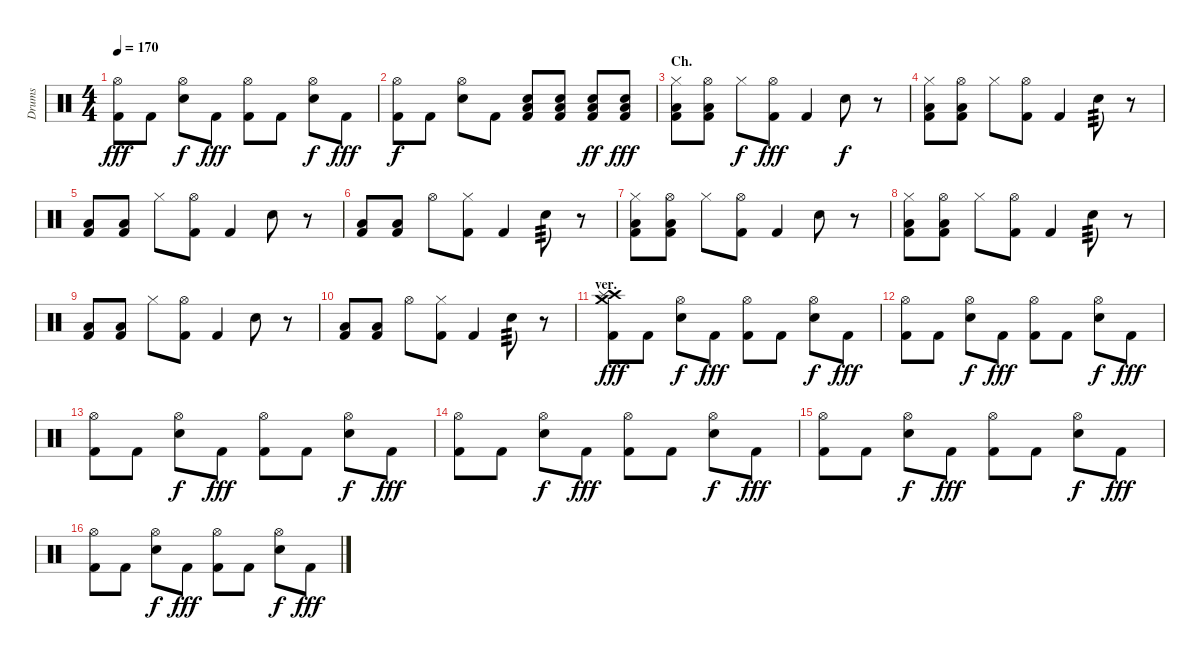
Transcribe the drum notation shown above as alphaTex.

\track ("Drums" "Drums") {instrument percussion}
\staff {score}
\articulation defaults
\ts (4 4)
\tempo 170
\clef neutral
\ks c
("Hi-Hat (open)" "Kick (hit) 2").8{dy fff} "Kick (hit) 2".8 ("Hi-Hat (open)" "Snare (hit) 2").8{dy f} "Kick (hit) 2".8{dy fff} ("Hi-Hat (open)" "Kick (hit) 2").8 "Kick (hit) 2".8 ("Hi-Hat (open)" "Snare (hit) 2").8{dy f} "Kick (hit) 2".8{dy fff} |
("Hi-Hat (open)" "Kick (hit) 2").8{dy f} "Kick (hit) 2".8 ("Hi-Hat (open)" "Electric Snare (hit)").8 "Kick (hit) 2".8 ("Electric Snare (hit)" "Low Floor Tom (hit)" "Kick (hit) 2").8 ("Electric Snare (hit)" "Low Floor Tom (hit)" "Kick (hit) 2").8 ("Electric Snare (hit)" "Low Floor Tom (hit)" "Kick (hit) 2").8{dy ff} ("Electric Snare (hit)" "Low Floor Tom (hit)" "Kick (hit) 2").8{dy fff} |
\section ("" "Ch.")
("Hi-Hat (closed)" "Low Tom (hit)" "Kick (hit) 2").8 ("Hi-Hat (open)" "Low Tom (hit)" "Kick (hit) 2").8 "Hi-Hat (closed)".8{dy f} ("Hi-Hat (open)" "Kick (hit) 2").8{dy fff} "Kick (hit) 2".4 "Electric Snare (hit)".8{dy f} r.8 |
("Hi-Hat (closed)" "Low Tom (hit)" "Kick (hit) 2").8 ("Hi-Hat (open)" "Low Tom (hit)" "Kick (hit) 2").8 "Hi-Hat (closed)".8 ("Hi-Hat (open)" "Kick (hit) 2").8 "Kick (hit) 2".4 "Electric Snare (hit)".8{tp 3} r.8 |
("Low Tom (hit)" "Kick (hit) 2").8 ("Low Tom (hit)" "Kick (hit) 2").8 "Hi-Hat (closed)".8 ("Hi-Hat (open)" "Kick (hit) 2").8 "Kick (hit) 2".4 "Electric Snare (hit)".8 r.8 |
("Low Tom (hit)" "Kick (hit) 2").8 ("Low Tom (hit)" "Kick (hit) 2").8 "Hi-Hat (open)".8 ("Hi-Hat (closed)" "Kick (hit) 2").8 "Kick (hit) 2".4 "Electric Snare (hit)".8{tp 3} r.8 |
("Hi-Hat (closed)" "Low Tom (hit)" "Kick (hit) 2").8 ("Hi-Hat (open)" "Low Tom (hit)" "Kick (hit) 2").8 "Hi-Hat (closed)".8 ("Hi-Hat (open)" "Kick (hit) 2").8 "Kick (hit) 2".4 "Electric Snare (hit)".8 r.8 |
("Hi-Hat (closed)" "Low Tom (hit)" "Kick (hit) 2").8 ("Hi-Hat (open)" "Low Tom (hit)" "Kick (hit) 2").8 "Hi-Hat (closed)".8 ("Hi-Hat (open)" "Kick (hit) 2").8 "Kick (hit) 2".4 "Electric Snare (hit)".8{tp 3} r.8 |
("Low Tom (hit)" "Kick (hit) 2").8 ("Low Tom (hit)" "Kick (hit) 2").8 "Hi-Hat (closed)".8 ("Hi-Hat (open)" "Kick (hit) 2").8 "Kick (hit) 2".4 "Electric Snare (hit)".8 r.8 |
("Low Tom (hit)" "Kick (hit) 2").8 ("Low Tom (hit)" "Kick (hit) 2").8 "Hi-Hat (open)".8 ("Hi-Hat (closed)" "Kick (hit) 2").8 "Kick (hit) 2".4 "Electric Snare (hit)".8{tp 3} r.8 |
\section ("" "ver.")
("Crash high (hit)" "Crash medium (hit)" "Splash (hit)" "Kick (hit) 2").8{dy fff} "Kick (hit) 2".8 ("Hi-Hat (open)" "Electric Snare (hit)").8{dy f} "Kick (hit) 2".8{dy fff} ("Hi-Hat (open)" "Kick (hit) 2").8 "Kick (hit) 2".8 ("Hi-Hat (open)" "Electric Snare (hit)").8{dy f} "Kick (hit) 2".8{dy fff} |
("Hi-Hat (open)" "Kick (hit) 2").8 "Kick (hit) 2".8 ("Hi-Hat (open)" "Snare (hit) 2").8{dy f} "Kick (hit) 2".8{dy fff} ("Hi-Hat (open)" "Kick (hit) 2").8 "Kick (hit) 2".8 ("Hi-Hat (open)" "Snare (hit) 2").8{dy f} "Kick (hit) 2".8{dy fff} |
("Hi-Hat (open)" "Kick (hit) 2").8 "Kick (hit) 2".8 ("Hi-Hat (open)" "Snare (hit) 2").8{dy f} "Kick (hit) 2".8{dy fff} ("Hi-Hat (open)" "Kick (hit) 2").8 "Kick (hit) 2".8 ("Hi-Hat (open)" "Snare (hit) 2").8{dy f} "Kick (hit) 2".8{dy fff} |
("Hi-Hat (open)" "Kick (hit) 2").8 "Kick (hit) 2".8 ("Hi-Hat (open)" "Snare (hit) 2").8{dy f} "Kick (hit) 2".8{dy fff} ("Hi-Hat (open)" "Kick (hit) 2").8 "Kick (hit) 2".8 ("Hi-Hat (open)" "Snare (hit) 2").8{dy f} "Kick (hit) 2".8{dy fff} |
("Hi-Hat (open)" "Kick (hit) 2").8 "Kick (hit) 2".8 ("Hi-Hat (open)" "Snare (hit) 2").8{dy f} "Kick (hit) 2".8{dy fff} ("Hi-Hat (open)" "Kick (hit) 2").8 "Kick (hit) 2".8 ("Hi-Hat (open)" "Snare (hit) 2").8{dy f} "Kick (hit) 2".8{dy fff} |
("Hi-Hat (open)" "Kick (hit) 2").8 "Kick (hit) 2".8 ("Hi-Hat (open)" "Snare (hit) 2").8{dy f} "Kick (hit) 2".8{dy fff} ("Hi-Hat (open)" "Kick (hit) 2").8 "Kick (hit) 2".8 ("Hi-Hat (open)" "Snare (hit) 2").8{dy f} "Kick (hit) 2".8{dy fff}
